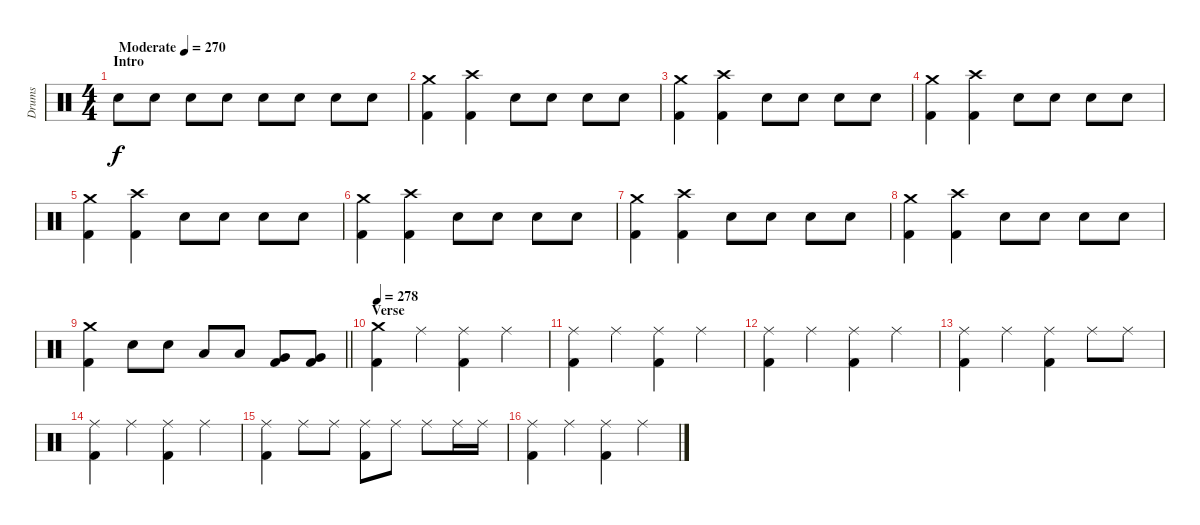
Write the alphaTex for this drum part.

\track ("Drums" "Drums") {instrument percussion}
\staff {score}
\articulation defaults
\ts (4 4)
\section ("" "Intro")
\tempo (270 "Moderate")
\clef neutral
\ks c "Electric Snare (hit)".8{dy f} "Electric Snare (hit)".8 "Electric Snare (hit)".8 "Electric Snare (hit)".8 "Electric Snare (hit)".8 "Electric Snare (hit)".8 "Electric Snare (hit)".8 "Electric Snare (hit)".8
|
("Crash medium (hit)" "Kick (hit) 2").4 ("Crash high (hit)" "Kick (hit) 2").4 "Electric Snare (hit)".8 "Electric Snare (hit)".8 "Electric Snare (hit)".8 "Electric Snare (hit)".8 |
("Crash medium (hit)" "Kick (hit) 2").4 ("Crash high (hit)" "Kick (hit) 2").4 "Electric Snare (hit)".8 "Electric Snare (hit)".8 "Electric Snare (hit)".8 "Electric Snare (hit)".8 |
("Crash medium (hit)" "Kick (hit) 2").4 ("Crash high (hit)" "Kick (hit) 2").4 "Electric Snare (hit)".8 "Electric Snare (hit)".8 "Electric Snare (hit)".8 "Electric Snare (hit)".8 |
("Crash medium (hit)" "Kick (hit) 2").4 ("Crash high (hit)" "Kick (hit) 2").4 "Electric Snare (hit)".8 "Electric Snare (hit)".8 "Electric Snare (hit)".8 "Electric Snare (hit)".8 |
("Crash medium (hit)" "Kick (hit) 2").4 ("Crash high (hit)" "Kick (hit) 2").4 "Electric Snare (hit)".8 "Electric Snare (hit)".8 "Electric Snare (hit)".8 "Electric Snare (hit)".8 |
("Crash medium (hit)" "Kick (hit) 2").4 ("Crash high (hit)" "Kick (hit) 2").4 "Electric Snare (hit)".8 "Electric Snare (hit)".8 "Electric Snare (hit)".8 "Electric Snare (hit)".8 |
("Crash medium (hit)" "Kick (hit) 2").4 ("Crash high (hit)" "Kick (hit) 2").4 "Electric Snare (hit)".8 "Electric Snare (hit)".8 "Electric Snare (hit)".8 "Electric Snare (hit)".8 |
\barLineRight lightlight
("Crash medium (hit)" "Kick (hit) 2").4 "Electric Snare (hit)".8 "Electric Snare (hit)".8 "Low Tom (hit)".8 "Low Tom (hit)".8 ("Very Low Tom (hit)" "Kick (hit) 2").8 ("Very Low Tom (hit)" "Kick (hit) 2").8 |
\section ("" "Verse")
\tempo 278
("Crash medium (hit)" "Kick (hit) 2").4 "Ride (middle)".4 ("Ride (middle)" "Kick (hit) 2").4 "Ride (middle)".4 |
("Ride (middle)" "Kick (hit) 2").4 "Ride (middle)".4 ("Ride (middle)" "Kick (hit) 2").4 "Ride (middle)".4 |
("Ride (middle)" "Kick (hit) 2").4 "Ride (middle)".4 ("Ride (middle)" "Kick (hit) 2").4 "Ride (middle)".4 |
("Ride (middle)" "Kick (hit) 2").4 "Ride (middle)".4 ("Ride (middle)" "Kick (hit) 2").4 "Ride (middle)".8 "Ride (middle)".8 |
("Ride (middle)" "Kick (hit) 2").4 "Ride (middle)".4 ("Ride (middle)" "Kick (hit) 2").4 "Ride (middle)".4 |
("Ride (middle)" "Kick (hit) 2").4 "Ride (middle)".8 "Ride (middle)".8 ("Ride (middle)" "Kick (hit) 2").8 "Ride (middle)".8 "Ride (middle)".8 "Ride (middle)".16 "Ride (middle)".16 |
("Ride (middle)" "Kick (hit) 2").4 "Ride (middle)".4 ("Ride (middle)" "Kick (hit) 2").4 "Ride (middle)".4
